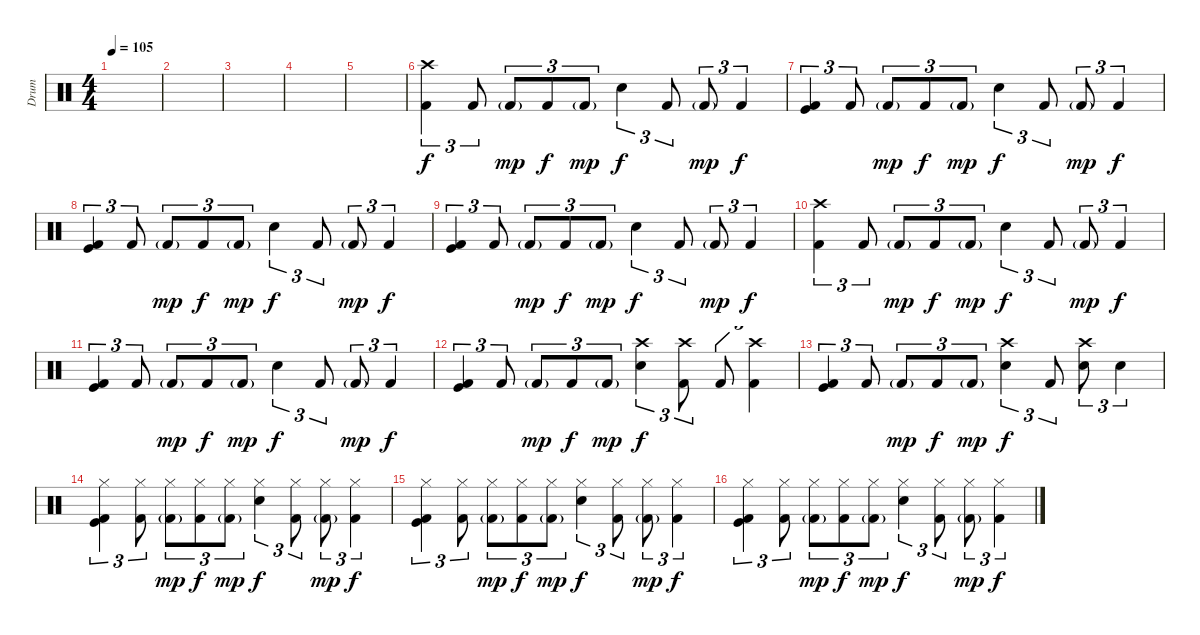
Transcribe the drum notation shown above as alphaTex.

\track ("Drum" "Drum") {instrument percussion}
\staff {score}
\articulation defaults
\ts (4 4)
\tempo 105
\clef neutral
\ks c
|
|
|
|
|
("Crash high (hit)" "Kick (hit) 2").4{tu (3 2)} "Kick (hit) 2".8{tu (3 2)} "Kick (hit) 2"{g}.8{tu (3 2) dy mp} "Kick (hit) 2".8{tu (3 2) dy f} "Kick (hit) 2"{g}.8{tu (3 2) dy mp} "Snare (hit) 2".4{tu (3 2) dy f} "Kick (hit) 2".8{tu (3 2)} "Kick (hit) 2"{g}.8{tu (3 2) dy mp} "Kick (hit) 2".4{tu (3 2) dy f} |
("Kick (hit)" "Kick (hit) 2").4{tu (3 2)} "Kick (hit) 2".8{tu (3 2)} "Kick (hit) 2"{g}.8{tu (3 2) dy mp} "Kick (hit) 2".8{tu (3 2) dy f} "Kick (hit) 2"{g}.8{tu (3 2) dy mp} "Snare (hit) 2".4{tu (3 2) dy f} "Kick (hit) 2".8{tu (3 2)} "Kick (hit) 2"{g}.8{tu (3 2) dy mp} "Kick (hit) 2".4{tu (3 2) dy f} |
("Kick (hit)" "Kick (hit) 2").4{tu (3 2)} "Kick (hit) 2".8{tu (3 2)} "Kick (hit) 2"{g}.8{tu (3 2) dy mp} "Kick (hit) 2".8{tu (3 2) dy f} "Kick (hit) 2"{g}.8{tu (3 2) dy mp} "Snare (hit) 2".4{tu (3 2) dy f} "Kick (hit) 2".8{tu (3 2)} "Kick (hit) 2"{g}.8{tu (3 2) dy mp} "Kick (hit) 2".4{tu (3 2) dy f} |
("Kick (hit)" "Kick (hit) 2").4{tu (3 2)} "Kick (hit) 2".8{tu (3 2)} "Kick (hit) 2"{g}.8{tu (3 2) dy mp} "Kick (hit) 2".8{tu (3 2) dy f} "Kick (hit) 2"{g}.8{tu (3 2) dy mp} "Snare (hit) 2".4{tu (3 2) dy f} "Kick (hit) 2".8{tu (3 2)} "Kick (hit) 2"{g}.8{tu (3 2) dy mp} "Kick (hit) 2".4{tu (3 2) dy f} |
("Crash high (hit)" "Kick (hit) 2").4{tu (3 2)} "Kick (hit) 2".8{tu (3 2)} "Kick (hit) 2"{g}.8{tu (3 2) dy mp} "Kick (hit) 2".8{tu (3 2) dy f} "Kick (hit) 2"{g}.8{tu (3 2) dy mp} "Snare (hit) 2".4{tu (3 2) dy f} "Kick (hit) 2".8{tu (3 2)} "Kick (hit) 2"{g}.8{tu (3 2) dy mp} "Kick (hit) 2".4{tu (3 2) dy f} |
("Kick (hit)" "Kick (hit) 2").4{tu (3 2)} "Kick (hit) 2".8{tu (3 2)} "Kick (hit) 2"{g}.8{tu (3 2) dy mp} "Kick (hit) 2".8{tu (3 2) dy f} "Kick (hit) 2"{g}.8{tu (3 2) dy mp} "Snare (hit) 2".4{tu (3 2) dy f} "Kick (hit) 2".8{tu (3 2)} "Kick (hit) 2"{g}.8{tu (3 2) dy mp} "Kick (hit) 2".4{tu (3 2) dy f} |
("Kick (hit)" "Kick (hit) 2").4{tu (3 2)} "Kick (hit) 2".8{tu (3 2)} "Kick (hit) 2"{g}.8{tu (3 2) dy mp} "Kick (hit) 2".8{tu (3 2) dy f} "Kick (hit) 2"{g}.8{tu (3 2) dy mp} ("Crash high (hit)" "Snare (hit) 2").4{tu (3 2) dy f} ("Crash high (hit)" "Kick (hit) 2").8{tu (3 2)} "Kick (hit) 2".8{tu (3 2)} ("Crash high (hit)" "Kick (hit) 2").4{tu (3 2)} |
("Kick (hit)" "Kick (hit) 2").4{tu (3 2)} "Kick (hit) 2".8{tu (3 2)} "Kick (hit) 2"{g}.8{tu (3 2) dy mp} "Kick (hit) 2".8{tu (3 2) dy f} "Kick (hit) 2"{g}.8{tu (3 2) dy mp} ("Crash high (hit)" "Snare (hit) 2").4{tu (3 2) dy f} "Kick (hit) 2".8{tu (3 2)} ("Crash high (hit)" "Snare (hit) 2").8{tu (3 2)} "Snare (hit) 2".4{tu (3 2)} |
("Kick (hit)" "Kick (hit) 2" "Hi-Hat (closed)").4{tu (3 2)} ("Kick (hit) 2" "Hi-Hat (closed)").8{tu (3 2)} ("Kick (hit) 2"{g} "Hi-Hat (closed)").8{tu (3 2) dy mp} ("Kick (hit) 2" "Hi-Hat (closed)").8{tu (3 2) dy f} ("Kick (hit) 2"{g} "Hi-Hat (closed)").8{tu (3 2) dy mp} ("Snare (hit) 2" "Hi-Hat (closed)").4{tu (3 2) dy f} ("Kick (hit) 2" "Hi-Hat (closed)").8{tu (3 2)} ("Kick (hit) 2"{g} "Hi-Hat (closed)").8{tu (3 2) dy mp} ("Kick (hit) 2" "Hi-Hat (closed)").4{tu (3 2) dy f} |
("Kick (hit)" "Kick (hit) 2" "Hi-Hat (closed)").4{tu (3 2)} ("Kick (hit) 2" "Hi-Hat (closed)").8{tu (3 2)} ("Kick (hit) 2"{g} "Hi-Hat (closed)").8{tu (3 2) dy mp} ("Kick (hit) 2" "Hi-Hat (closed)").8{tu (3 2) dy f} ("Kick (hit) 2"{g} "Hi-Hat (closed)").8{tu (3 2) dy mp} ("Snare (hit) 2" "Hi-Hat (closed)").4{tu (3 2) dy f} ("Kick (hit) 2" "Hi-Hat (closed)").8{tu (3 2)} ("Kick (hit) 2"{g} "Hi-Hat (closed)").8{tu (3 2) dy mp} ("Kick (hit) 2" "Hi-Hat (closed)").4{tu (3 2) dy f} |
("Kick (hit)" "Kick (hit) 2" "Hi-Hat (closed)").4{tu (3 2)} ("Kick (hit) 2" "Hi-Hat (closed)").8{tu (3 2)} ("Kick (hit) 2"{g} "Hi-Hat (closed)").8{tu (3 2) dy mp} ("Kick (hit) 2" "Hi-Hat (closed)").8{tu (3 2) dy f} ("Kick (hit) 2"{g} "Hi-Hat (closed)").8{tu (3 2) dy mp} ("Snare (hit) 2" "Hi-Hat (closed)").4{tu (3 2) dy f} ("Kick (hit) 2" "Hi-Hat (closed)").8{tu (3 2)} ("Kick (hit) 2"{g} "Hi-Hat (closed)").8{tu (3 2) dy mp} ("Kick (hit) 2" "Hi-Hat (closed)").4{tu (3 2) dy f}
